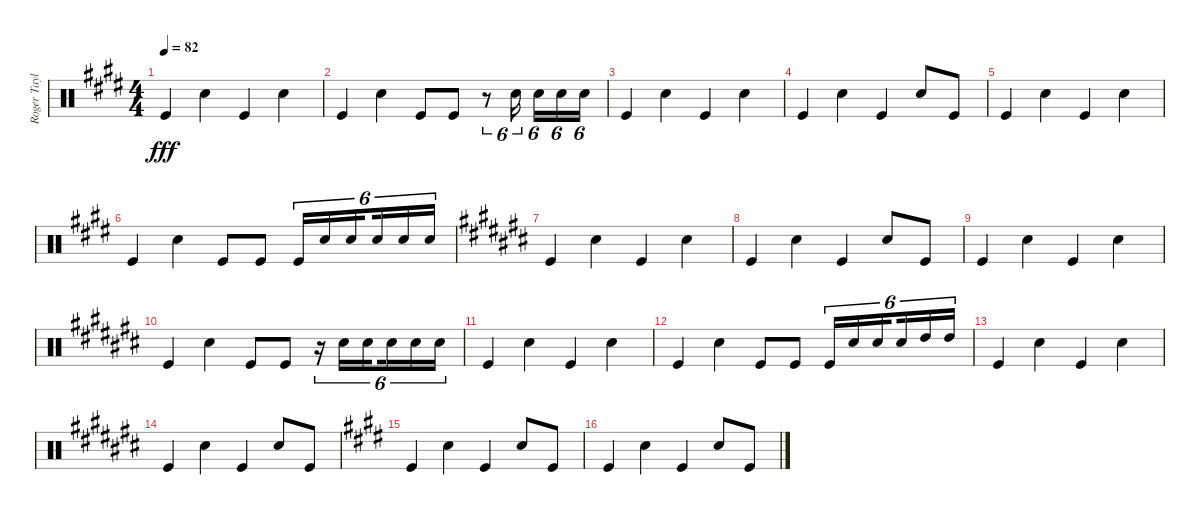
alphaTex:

\track ("Roger Taylor" "Roger Tayl") {instrument percussion}
\staff {score}
\articulation defaults
\ts (4 4)
\tempo 82
\clef neutral
\ks e "Kick (hit)".4{dy fff} "Snare (hit) 2".4 "Kick (hit)".4 "Snare (hit) 2".4
|
"Kick (hit)".4 "Snare (hit) 2".4 "Kick (hit)".8 "Kick (hit)".8 r.8{tu (6 4)} "Snare (hit) 2".16{tu (6 4) beam splitsecondary} "Snare (hit) 2".16{tu (6 4)} "Snare (hit) 2".16{tu (6 4)} "Snare (hit) 2".16{tu (6 4)} |
"Kick (hit)".4 "Snare (hit) 2".4 "Kick (hit)".4 "Snare (hit) 2".4 |
"Kick (hit)".4 "Snare (hit) 2".4 "Kick (hit)".4 "Snare (hit) 2".8 "Kick (hit)".8 |
"Kick (hit)".4 "Snare (hit) 2".4 "Kick (hit)".4 "Snare (hit) 2".4 |
"Kick (hit)".4 "Snare (hit) 2".4 "Kick (hit)".8 "Kick (hit)".8 "Kick (hit)".16{tu (6 4)} "Snare (hit) 2".16{tu (6 4)} "Snare (hit) 2".16{tu (6 4) beam splitsecondary} "Snare (hit) 2".16{tu (6 4)} "Snare (hit) 2".16{tu (6 4)} "Snare (hit) 2".16{tu (6 4)} |
\ks c# "Kick (hit)".4 "Snare (hit) 2".4 "Kick (hit)".4 "Snare (hit) 2".4
|
"Kick (hit)".4 "Snare (hit) 2".4 "Kick (hit)".4 "Snare (hit) 2".8 "Kick (hit)".8 |
"Kick (hit)".4 "Snare (hit) 2".4 "Kick (hit)".4 "Snare (hit) 2".4 |
"Kick (hit)".4 "Snare (hit) 2".4 "Kick (hit)".8 "Kick (hit)".8 r.16{tu (6 4)} "Snare (hit) 2".16{tu (6 4)} "Snare (hit) 2".16{tu (6 4) beam splitsecondary} "Snare (hit) 2".16{tu (6 4)} "Snare (hit) 2".16{tu (6 4)} "Snare (hit) 2".16{tu (6 4)} |
"Kick (hit)".4 "Snare (hit) 2".4 "Kick (hit)".4 "Snare (hit) 2".4 |
"Kick (hit)".4 "Snare (hit) 2".4 "Kick (hit)".8 "Kick (hit)".8 "Kick (hit)".16{tu (6 4)} "Snare (hit) 2".16{tu (6 4)} "Snare (hit) 2".16{tu (6 4) beam splitsecondary} "Snare (hit) 2".16{tu (6 4)} "High Tom (hit)".16{tu (6 4)} "High Tom (hit)".16{tu (6 4)} |
"Kick (hit)".4 "Snare (hit) 2".4 "Kick (hit)".4 "Snare (hit) 2".4 |
"Kick (hit)".4 "Snare (hit) 2".4 "Kick (hit)".4 "Snare (hit) 2".8 "Kick (hit)".8 |
\ks e "Kick (hit)".4 "Snare (hit) 2".4 "Kick (hit)".4 "Snare (hit) 2".8 "Kick (hit)".8
|
"Kick (hit)".4 "Snare (hit) 2".4 "Kick (hit)".4 "Snare (hit) 2".8 "Kick (hit)".8
